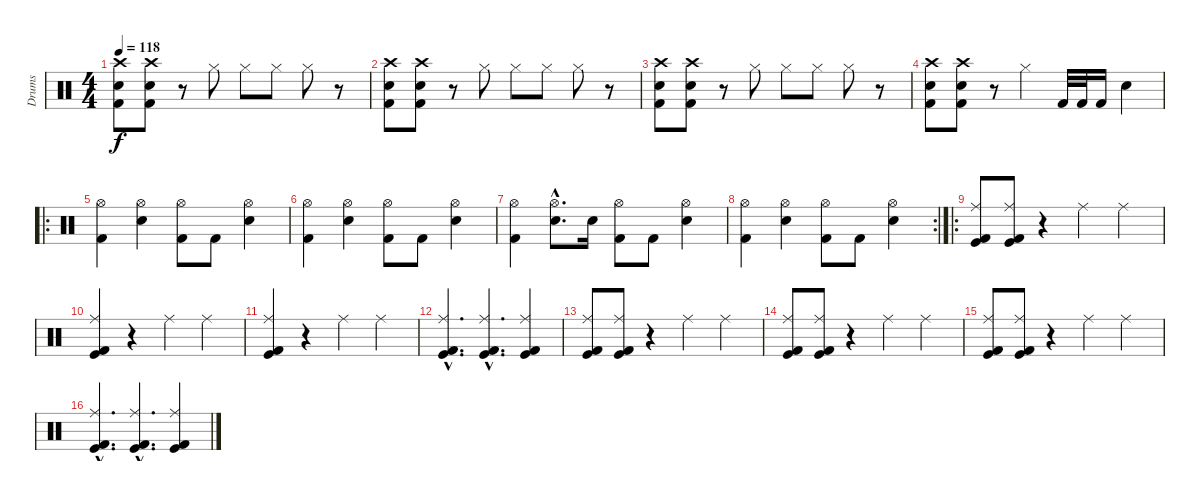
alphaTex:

\track ("Drums" "Drums") {instrument percussion}
\staff {score}
\articulation defaults
\ts (4 4)
\tempo 118
\clef neutral
\ks c
("Crash high (hit)" "Electric Snare (hit)" "Kick (hit) 2").8{dy f} ("Crash high (hit)" "Electric Snare (hit)" "Kick (hit) 2").8 r.8 "Hi-Hat (closed)".8 "Hi-Hat (closed)".8 "Hi-Hat (closed)".8 "Hi-Hat (closed)".8 r.8 |
("Crash high (hit)" "Electric Snare (hit)" "Kick (hit) 2").8 ("Crash high (hit)" "Electric Snare (hit)" "Kick (hit) 2").8 r.8 "Hi-Hat (closed)".8 "Hi-Hat (closed)".8 "Hi-Hat (closed)".8 "Hi-Hat (closed)".8 r.8 |
("Crash high (hit)" "Electric Snare (hit)" "Kick (hit) 2").8 ("Crash high (hit)" "Electric Snare (hit)" "Kick (hit) 2").8 r.8 "Hi-Hat (closed)".8 "Hi-Hat (closed)".8 "Hi-Hat (closed)".8 "Hi-Hat (closed)".8 r.8 |
("Crash high (hit)" "Electric Snare (hit)" "Kick (hit) 2").8 ("Crash high (hit)" "Electric Snare (hit)" "Kick (hit) 2").8 r.8 "Hi-Hat (closed)".4 "Kick (hit) 2".32 "Kick (hit) 2".32 "Kick (hit) 2".16 "Electric Snare (hit)".4 |
\ro
("Hi-Hat (open)" "Kick (hit) 2").4 ("Hi-Hat (open)" "Electric Snare (hit)").4 ("Hi-Hat (open)" "Kick (hit) 2").8 "Kick (hit) 2".8 ("Hi-Hat (open)" "Electric Snare (hit)").4 |
("Hi-Hat (open)" "Kick (hit) 2").4 ("Hi-Hat (open)" "Electric Snare (hit)").4 ("Hi-Hat (open)" "Kick (hit) 2").8 "Kick (hit) 2".8 ("Hi-Hat (open)" "Electric Snare (hit)").4 |
("Hi-Hat (open)" "Kick (hit) 2").4 ("Hi-Hat (open)"{hac} "Electric Snare (hit)"{hac}).8{d} "Electric Snare (hit)".16 ("Hi-Hat (open)" "Kick (hit) 2").8 "Kick (hit) 2".8 ("Hi-Hat (open)" "Electric Snare (hit)").4 |
\rc 2
("Hi-Hat (open)" "Kick (hit) 2").4 ("Hi-Hat (open)" "Electric Snare (hit)").4 ("Hi-Hat (open)" "Kick (hit) 2").8 "Kick (hit) 2".8 ("Hi-Hat (open)" "Electric Snare (hit)").4 |
\ro
("Ride (middle)" "Kick (hit)" "Kick (hit) 2").8 ("Ride (middle)" "Kick (hit)" "Kick (hit) 2").8 r.4 "Ride (middle)".4 "Ride (middle)".4 |
("Ride (middle)" "Kick (hit)" "Kick (hit) 2").4 r.4 "Ride (middle)".4 "Ride (middle)".4 |
("Ride (middle)" "Kick (hit)" "Kick (hit) 2").4 r.4 "Ride (middle)".4 "Ride (middle)".4 |
("Ride (middle)"{hac} "Kick (hit)"{hac} "Kick (hit) 2"{hac}).4{d} ("Ride (middle)"{hac} "Kick (hit)"{hac} "Kick (hit) 2"{hac}).4{d} ("Ride (middle)" "Kick (hit)" "Kick (hit) 2").4 |
("Ride (middle)" "Kick (hit)" "Kick (hit) 2").8 ("Ride (middle)" "Kick (hit)" "Kick (hit) 2").8 r.4 "Ride (middle)".4 "Ride (middle)".4 |
("Ride (middle)" "Kick (hit)" "Kick (hit) 2").8 ("Ride (middle)" "Kick (hit)" "Kick (hit) 2").8 r.4 "Ride (middle)".4 "Ride (middle)".4 |
("Ride (middle)" "Kick (hit)" "Kick (hit) 2").8 ("Ride (middle)" "Kick (hit)" "Kick (hit) 2").8 r.4 "Ride (middle)".4 "Ride (middle)".4 |
("Ride (middle)"{hac} "Kick (hit)"{hac} "Kick (hit) 2"{hac}).4{d} ("Ride (middle)"{hac} "Kick (hit)"{hac} "Kick (hit) 2"{hac}).4{d} ("Ride (middle)" "Kick (hit)" "Kick (hit) 2").4
